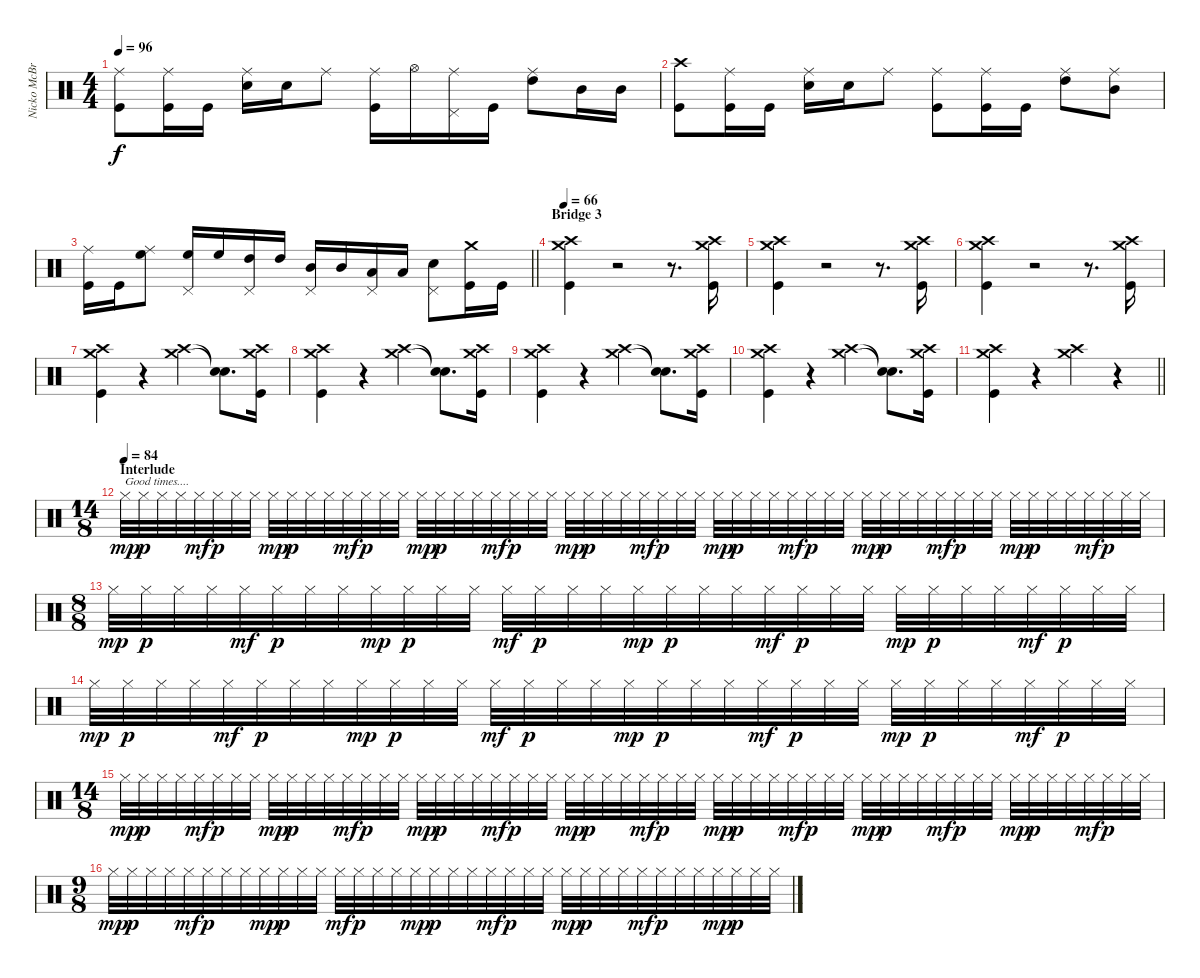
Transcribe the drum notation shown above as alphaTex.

\track ("Nicko McBrain" "Nicko McBr") {instrument percussion}
\staff {score}
\articulation defaults
\ts (4 4)
\tempo 96
\clef neutral
\ks c
("Ride (middle)" "Kick (hit)").8{dy f} ("Ride (middle)" "Kick (hit)").16 "Kick (hit)".16 ("Ride (middle)" "Electric Snare (hit)").16 "Electric Snare (hit)".16 "Ride (middle)".8 ("Ride (middle)" "Kick (hit)").16 "Hi-Hat (open)".16 ("Ride (middle)" "Pedal Hi-Hat (hit)").16 "Kick (hit)".16 ("Ride (middle)" "High Tom (hit)").8 "Mid Tom (hit)".16 "Mid Tom (hit)".16 |
("Crash high (hit)" "Kick (hit)").8 ("Ride (middle)" "Kick (hit)").16 "Kick (hit)".16 ("Ride (middle)" "Electric Snare (hit)").16 "Electric Snare (hit)".16 "Ride (middle)".8 ("Ride (middle)" "Kick (hit)").8 ("Ride (middle)" "Kick (hit)").16 "Kick (hit)".16 ("Ride (middle)" "High Tom (hit)").8 ("Ride (middle)" "Mid Tom (hit)").8 |
\barLineRight lightlight
("Ride (middle)" "Kick (hit)").16 "Kick (hit)".16 ("Ride (middle)" "High Floor Tom (hit)").8 ("High Floor Tom (hit)" "Pedal Hi-Hat (hit)").16 "High Floor Tom (hit)".16 ("High Tom (hit)" "Pedal Hi-Hat (hit)").16 "High Tom (hit)".16 ("Mid Tom (hit)" "Pedal Hi-Hat (hit)").16 "Mid Tom (hit)".16 ("Low Tom (hit)" "Pedal Hi-Hat (hit)").16 "Low Tom (hit)".16 ("Electric Snare (hit)" "Pedal Hi-Hat (hit)").8 ("Crash medium (hit)" "Kick (hit)").16 "Kick (hit)".16 |
\section ("" "Bridge 3")
\tempo 66
("Crash high (hit)" "Crash medium (hit)" "Kick (hit)").4 r.2 r.8{d} ("Crash high (hit)" "Crash medium (hit)" "Kick (hit)").16 |
("Crash high (hit)" "Crash medium (hit)" "Kick (hit)").4 r.2 r.8{d} ("Crash high (hit)" "Crash medium (hit)" "Kick (hit)").16 |
("Crash high (hit)" "Crash medium (hit)" "Kick (hit)").4 r.2 r.8{d} ("Crash high (hit)" "Crash medium (hit)" "Kick (hit)").16 |
("Crash high (hit)" "Crash medium (hit)" "Kick (hit)").4 r.4{volume 0} ("Crash high (hit)" "Crash medium (hit)").4{volume 14} ("Snare (hit)"{t} "Snare (hit)"{t}).8{d} ("Crash high (hit)" "Crash medium (hit)" "Kick (hit)").16 |
("Crash high (hit)" "Crash medium (hit)" "Kick (hit)").4 r.4{volume 0} ("Crash high (hit)" "Crash medium (hit)").4{volume 14} ("Snare (hit)"{t} "Snare (hit)"{t}).8{d} ("Crash high (hit)" "Crash medium (hit)" "Kick (hit)").16 |
("Crash high (hit)" "Crash medium (hit)" "Kick (hit)").4 r.4{volume 0} ("Crash high (hit)" "Crash medium (hit)").4{volume 14} ("Snare (hit)"{t} "Snare (hit)"{t}).8{d} ("Crash high (hit)" "Crash medium (hit)" "Kick (hit)").16 |
("Crash high (hit)" "Crash medium (hit)" "Kick (hit)").4 r.4{volume 0} ("Crash high (hit)" "Crash medium (hit)").4{volume 14} ("Snare (hit)"{t} "Snare (hit)"{t}).8{d} ("Crash high (hit)" "Crash medium (hit)" "Kick (hit)").16 |
\barLineRight lightlight
("Crash high (hit)" "Crash medium (hit)" "Kick (hit)").4 r.4{volume 0} ("Crash high (hit)" "Crash medium (hit)").4{volume 14} r.4 |
\ts (14 8)
\section ("" "Interlude")
\tempo (84)
"Hi-Hat (closed)".32{txt "Good times...." dy mp} "Hi-Hat (closed)".32{dy p} "Hi-Hat (closed)".32 "Hi-Hat (closed)".32 "Hi-Hat (closed)".32{dy mf} "Hi-Hat (closed)".32{dy p} "Hi-Hat (closed)".32 "Hi-Hat (closed)".32 "Hi-Hat (closed)".32{dy mp} "Hi-Hat (closed)".32{dy p} "Hi-Hat (closed)".32 "Hi-Hat (closed)".32 "Hi-Hat (closed)".32{dy mf} "Hi-Hat (closed)".32{dy p} "Hi-Hat (closed)".32 "Hi-Hat (closed)".32 "Hi-Hat (closed)".32{dy mp} "Hi-Hat (closed)".32{dy p} "Hi-Hat (closed)".32 "Hi-Hat (closed)".32 "Hi-Hat (closed)".32{dy mf} "Hi-Hat (closed)".32{dy p} "Hi-Hat (closed)".32 "Hi-Hat (closed)".32 "Hi-Hat (closed)".32{dy mp} "Hi-Hat (closed)".32{dy p} "Hi-Hat (closed)".32 "Hi-Hat (closed)".32 "Hi-Hat (closed)".32{dy mf} "Hi-Hat (closed)".32{dy p} "Hi-Hat (closed)".32 "Hi-Hat (closed)".32 "Hi-Hat (closed)".32{dy mp} "Hi-Hat (closed)".32{dy p} "Hi-Hat (closed)".32 "Hi-Hat (closed)".32 "Hi-Hat (closed)".32{dy mf} "Hi-Hat (closed)".32{dy p} "Hi-Hat (closed)".32 "Hi-Hat (closed)".32 "Hi-Hat (closed)".32{dy mp} "Hi-Hat (closed)".32{dy p} "Hi-Hat (closed)".32 "Hi-Hat (closed)".32 "Hi-Hat (closed)".32{dy mf} "Hi-Hat (closed)".32{dy p} "Hi-Hat (closed)".32 "Hi-Hat (closed)".32 "Hi-Hat (closed)".32{dy mp} "Hi-Hat (closed)".32{dy p} "Hi-Hat (closed)".32 "Hi-Hat (closed)".32 "Hi-Hat (closed)".32{dy mf} "Hi-Hat (closed)".32{dy p} "Hi-Hat (closed)".32 "Hi-Hat (closed)".32 |
\ts (8 8)
"Hi-Hat (closed)".32{dy mp} "Hi-Hat (closed)".32{dy p} "Hi-Hat (closed)".32 "Hi-Hat (closed)".32 "Hi-Hat (closed)".32{dy mf} "Hi-Hat (closed)".32{dy p} "Hi-Hat (closed)".32 "Hi-Hat (closed)".32 "Hi-Hat (closed)".32{dy mp} "Hi-Hat (closed)".32{dy p} "Hi-Hat (closed)".32 "Hi-Hat (closed)".32 "Hi-Hat (closed)".32{dy mf} "Hi-Hat (closed)".32{dy p} "Hi-Hat (closed)".32 "Hi-Hat (closed)".32 "Hi-Hat (closed)".32{dy mp} "Hi-Hat (closed)".32{dy p} "Hi-Hat (closed)".32 "Hi-Hat (closed)".32 "Hi-Hat (closed)".32{dy mf} "Hi-Hat (closed)".32{dy p} "Hi-Hat (closed)".32 "Hi-Hat (closed)".32 "Hi-Hat (closed)".32{dy mp} "Hi-Hat (closed)".32{dy p} "Hi-Hat (closed)".32 "Hi-Hat (closed)".32 "Hi-Hat (closed)".32{dy mf} "Hi-Hat (closed)".32{dy p} "Hi-Hat (closed)".32 "Hi-Hat (closed)".32 |
"Hi-Hat (closed)".32{dy mp} "Hi-Hat (closed)".32{dy p} "Hi-Hat (closed)".32 "Hi-Hat (closed)".32 "Hi-Hat (closed)".32{dy mf} "Hi-Hat (closed)".32{dy p} "Hi-Hat (closed)".32 "Hi-Hat (closed)".32 "Hi-Hat (closed)".32{dy mp} "Hi-Hat (closed)".32{dy p} "Hi-Hat (closed)".32 "Hi-Hat (closed)".32 "Hi-Hat (closed)".32{dy mf} "Hi-Hat (closed)".32{dy p} "Hi-Hat (closed)".32 "Hi-Hat (closed)".32 "Hi-Hat (closed)".32{dy mp} "Hi-Hat (closed)".32{dy p} "Hi-Hat (closed)".32 "Hi-Hat (closed)".32 "Hi-Hat (closed)".32{dy mf} "Hi-Hat (closed)".32{dy p} "Hi-Hat (closed)".32 "Hi-Hat (closed)".32 "Hi-Hat (closed)".32{dy mp} "Hi-Hat (closed)".32{dy p} "Hi-Hat (closed)".32 "Hi-Hat (closed)".32 "Hi-Hat (closed)".32{dy mf} "Hi-Hat (closed)".32{dy p} "Hi-Hat (closed)".32 "Hi-Hat (closed)".32 |
\ts (14 8)
"Hi-Hat (closed)".32{dy mp} "Hi-Hat (closed)".32{dy p} "Hi-Hat (closed)".32 "Hi-Hat (closed)".32 "Hi-Hat (closed)".32{dy mf} "Hi-Hat (closed)".32{dy p} "Hi-Hat (closed)".32 "Hi-Hat (closed)".32 "Hi-Hat (closed)".32{dy mp} "Hi-Hat (closed)".32{dy p} "Hi-Hat (closed)".32 "Hi-Hat (closed)".32 "Hi-Hat (closed)".32{dy mf} "Hi-Hat (closed)".32{dy p} "Hi-Hat (closed)".32 "Hi-Hat (closed)".32 "Hi-Hat (closed)".32{dy mp} "Hi-Hat (closed)".32{dy p} "Hi-Hat (closed)".32 "Hi-Hat (closed)".32 "Hi-Hat (closed)".32{dy mf} "Hi-Hat (closed)".32{dy p} "Hi-Hat (closed)".32 "Hi-Hat (closed)".32 "Hi-Hat (closed)".32{dy mp} "Hi-Hat (closed)".32{dy p} "Hi-Hat (closed)".32 "Hi-Hat (closed)".32 "Hi-Hat (closed)".32{dy mf} "Hi-Hat (closed)".32{dy p} "Hi-Hat (closed)".32 "Hi-Hat (closed)".32 "Hi-Hat (closed)".32{dy mp} "Hi-Hat (closed)".32{dy p} "Hi-Hat (closed)".32 "Hi-Hat (closed)".32 "Hi-Hat (closed)".32{dy mf} "Hi-Hat (closed)".32{dy p} "Hi-Hat (closed)".32 "Hi-Hat (closed)".32 "Hi-Hat (closed)".32{dy mp} "Hi-Hat (closed)".32{dy p} "Hi-Hat (closed)".32 "Hi-Hat (closed)".32 "Hi-Hat (closed)".32{dy mf} "Hi-Hat (closed)".32{dy p} "Hi-Hat (closed)".32 "Hi-Hat (closed)".32 "Hi-Hat (closed)".32{dy mp} "Hi-Hat (closed)".32{dy p} "Hi-Hat (closed)".32 "Hi-Hat (closed)".32 "Hi-Hat (closed)".32{dy mf} "Hi-Hat (closed)".32{dy p} "Hi-Hat (closed)".32 "Hi-Hat (closed)".32 |
\ts (9 8)
"Hi-Hat (closed)".32{dy mp} "Hi-Hat (closed)".32{dy p} "Hi-Hat (closed)".32 "Hi-Hat (closed)".32 "Hi-Hat (closed)".32{dy mf} "Hi-Hat (closed)".32{dy p} "Hi-Hat (closed)".32 "Hi-Hat (closed)".32 "Hi-Hat (closed)".32{dy mp} "Hi-Hat (closed)".32{dy p} "Hi-Hat (closed)".32 "Hi-Hat (closed)".32 "Hi-Hat (closed)".32{dy mf} "Hi-Hat (closed)".32{dy p} "Hi-Hat (closed)".32 "Hi-Hat (closed)".32 "Hi-Hat (closed)".32{dy mp} "Hi-Hat (closed)".32{dy p} "Hi-Hat (closed)".32 "Hi-Hat (closed)".32 "Hi-Hat (closed)".32{dy mf} "Hi-Hat (closed)".32{dy p} "Hi-Hat (closed)".32 "Hi-Hat (closed)".32 "Hi-Hat (closed)".32{dy mp} "Hi-Hat (closed)".32{dy p} "Hi-Hat (closed)".32 "Hi-Hat (closed)".32 "Hi-Hat (closed)".32{dy mf} "Hi-Hat (closed)".32{dy p} "Hi-Hat (closed)".32 "Hi-Hat (closed)".32 "Hi-Hat (closed)".32{dy mp} "Hi-Hat (closed)".32{dy p} "Hi-Hat (closed)".32 "Hi-Hat (closed)".32
